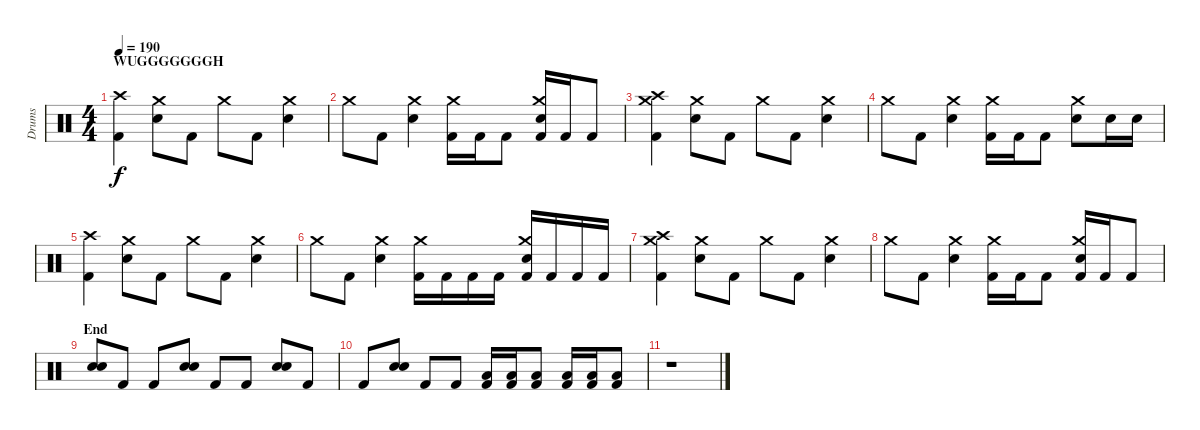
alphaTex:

\track ("Drums" "Drums") {instrument percussion}
\staff {score}
\articulation defaults
\ts (4 4)
\section ("" "WUGGGGGGGH")
\tempo 190
\clef neutral
\ks c
("Crash high (hit)" "Kick (hit) 2").4{dy f} ("Crash medium (hit)" "Electric Snare (hit)").8 "Kick (hit) 2".8 "Crash medium (hit)".8 "Kick (hit) 2".8 ("Crash medium (hit)" "Electric Snare (hit)").4 |
"Crash medium (hit)".8 "Kick (hit) 2".8 ("Crash medium (hit)" "Electric Snare (hit)").4 ("Crash medium (hit)" "Kick (hit) 2").16 "Kick (hit) 2".16 "Kick (hit) 2".8 ("Crash medium (hit)" "Electric Snare (hit)" "Kick (hit) 2").16 "Kick (hit) 2".16 "Kick (hit) 2".8 |
("Crash high (hit)" "Crash medium (hit)" "Kick (hit) 2").4 ("Crash medium (hit)" "Electric Snare (hit)").8 "Kick (hit) 2".8 "Crash medium (hit)".8 "Kick (hit) 2".8 ("Crash medium (hit)" "Electric Snare (hit)").4 |
"Crash medium (hit)".8 "Kick (hit) 2".8 ("Crash medium (hit)" "Electric Snare (hit)").4 ("Crash medium (hit)" "Kick (hit) 2").16 "Kick (hit) 2".16 "Kick (hit) 2".8 ("Crash medium (hit)" "Electric Snare (hit)").8 "Electric Snare (hit)".16 "Electric Snare (hit)".16 |
("Crash high (hit)" "Kick (hit) 2").4 ("Crash medium (hit)" "Electric Snare (hit)").8 "Kick (hit) 2".8 "Crash medium (hit)".8 "Kick (hit) 2".8 ("Crash medium (hit)" "Electric Snare (hit)").4 |
"Crash medium (hit)".8 "Kick (hit) 2".8 ("Crash medium (hit)" "Electric Snare (hit)").4 ("Crash medium (hit)" "Kick (hit) 2").16 "Kick (hit) 2".16 "Kick (hit) 2".16 "Kick (hit) 2".16 ("Crash medium (hit)" "Electric Snare (hit)" "Kick (hit) 2").16 "Kick (hit) 2".16 "Kick (hit) 2".16 "Kick (hit) 2".16 |
("Crash high (hit)" "Crash medium (hit)" "Kick (hit) 2").4 ("Crash medium (hit)" "Electric Snare (hit)").8 "Kick (hit) 2".8 "Crash medium (hit)".8 "Kick (hit) 2".8 ("Crash medium (hit)" "Electric Snare (hit)").4 |
"Crash medium (hit)".8 "Kick (hit) 2".8 ("Crash medium (hit)" "Electric Snare (hit)").4 ("Crash medium (hit)" "Kick (hit) 2").16 "Kick (hit) 2".16 "Kick (hit) 2".8 ("Crash medium (hit)" "Electric Snare (hit)" "Kick (hit) 2").16 "Kick (hit) 2".16 "Kick (hit) 2".8 |
\section ("" "End")
("Electric Snare (hit)" "Electric Snare (hit)").8{bd 60} "Kick (hit) 2".8 "Kick (hit) 2".8 ("Electric Snare (hit)" "Electric Snare (hit)").8{bd 60} "Kick (hit) 2".8 "Kick (hit) 2".8 ("Electric Snare (hit)" "Electric Snare (hit)").8{bd 60} "Kick (hit) 2".8 |
"Kick (hit) 2".8 ("Electric Snare (hit)" "Electric Snare (hit)").8{bd 60} "Kick (hit) 2".8 "Kick (hit) 2".8 ("Low Floor Tom (hit)" "Kick (hit) 2").16 ("Low Floor Tom (hit)" "Kick (hit) 2").16 ("Low Floor Tom (hit)" "Kick (hit) 2").8 ("Low Floor Tom (hit)" "Kick (hit) 2").16 ("Low Floor Tom (hit)" "Kick (hit) 2").16 ("Low Floor Tom (hit)" "Kick (hit) 2").8 |
r.1
